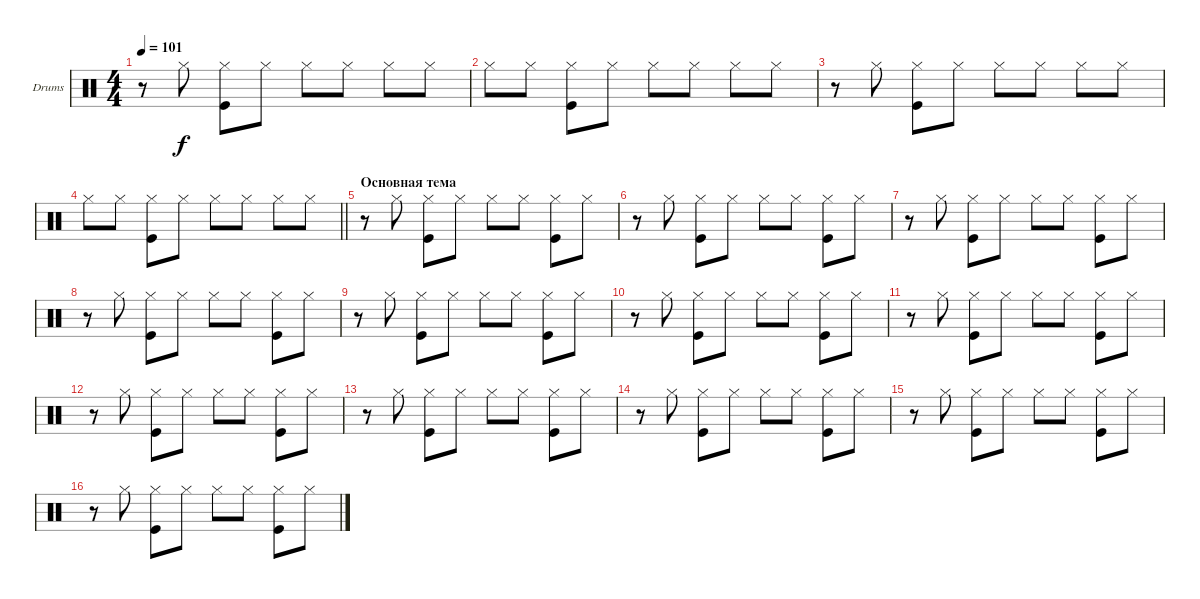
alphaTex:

\bracketExtendMode groupsimilarinstruments
\firstSystemTrackNameOrientation horizontal
\otherSystemsTrackNameOrientation horizontal
\track ("Drumkit" "Drums") {instrument percussion}
\staff {score}
\articulation defaults
\ts (4 4)
\tempo 101
\clef neutral
\ks c
r.8{dy f} "Hi-Hat (closed)".8 ("Hi-Hat (closed)" "Kick (hit)").8 "Hi-Hat (closed)".8 "Hi-Hat (closed)".8 "Hi-Hat (closed)".8 "Hi-Hat (closed)".8 "Hi-Hat (closed)".8 |
"Hi-Hat (closed)".8 "Hi-Hat (closed)".8 ("Hi-Hat (closed)" "Kick (hit)").8 "Hi-Hat (closed)".8 "Hi-Hat (closed)".8 "Hi-Hat (closed)".8 "Hi-Hat (closed)".8 "Hi-Hat (closed)".8 |
r.8 "Hi-Hat (closed)".8 ("Hi-Hat (closed)" "Kick (hit)").8 "Hi-Hat (closed)".8 "Hi-Hat (closed)".8 "Hi-Hat (closed)".8 "Hi-Hat (closed)".8 "Hi-Hat (closed)".8 |
\barLineRight lightlight "Hi-Hat (closed)".8 "Hi-Hat (closed)".8
("Hi-Hat (closed)" "Kick (hit)").8 "Hi-Hat (closed)".8 "Hi-Hat (closed)".8 "Hi-Hat (closed)".8 "Hi-Hat (closed)".8 "Hi-Hat (closed)".8 |
\section ("" "Основная тема")
r.8 "Hi-Hat (closed)".8 ("Hi-Hat (closed)" "Kick (hit)").8 "Hi-Hat (closed)".8 "Hi-Hat (closed)".8 "Hi-Hat (closed)".8 ("Hi-Hat (closed)" "Kick (hit)").8 "Hi-Hat (closed)".8 |
r.8 "Hi-Hat (closed)".8 ("Hi-Hat (closed)" "Kick (hit)").8 "Hi-Hat (closed)".8 "Hi-Hat (closed)".8 "Hi-Hat (closed)".8 ("Hi-Hat (closed)" "Kick (hit)").8 "Hi-Hat (closed)".8 |
r.8 "Hi-Hat (closed)".8 ("Hi-Hat (closed)" "Kick (hit)").8 "Hi-Hat (closed)".8 "Hi-Hat (closed)".8 "Hi-Hat (closed)".8 ("Hi-Hat (closed)" "Kick (hit)").8 "Hi-Hat (closed)".8 |
r.8 "Hi-Hat (closed)".8 ("Hi-Hat (closed)" "Kick (hit)").8 "Hi-Hat (closed)".8 "Hi-Hat (closed)".8 "Hi-Hat (closed)".8 ("Hi-Hat (closed)" "Kick (hit)").8 "Hi-Hat (closed)".8 |
r.8 "Hi-Hat (closed)".8 ("Hi-Hat (closed)" "Kick (hit)").8 "Hi-Hat (closed)".8 "Hi-Hat (closed)".8 "Hi-Hat (closed)".8 ("Hi-Hat (closed)" "Kick (hit)").8 "Hi-Hat (closed)".8 |
r.8 "Hi-Hat (closed)".8 ("Hi-Hat (closed)" "Kick (hit)").8 "Hi-Hat (closed)".8 "Hi-Hat (closed)".8 "Hi-Hat (closed)".8 ("Hi-Hat (closed)" "Kick (hit)").8 "Hi-Hat (closed)".8 |
r.8 "Hi-Hat (closed)".8 ("Hi-Hat (closed)" "Kick (hit)").8 "Hi-Hat (closed)".8 "Hi-Hat (closed)".8 "Hi-Hat (closed)".8 ("Hi-Hat (closed)" "Kick (hit)").8 "Hi-Hat (closed)".8 |
r.8 "Hi-Hat (closed)".8 ("Hi-Hat (closed)" "Kick (hit)").8 "Hi-Hat (closed)".8 "Hi-Hat (closed)".8 "Hi-Hat (closed)".8 ("Hi-Hat (closed)" "Kick (hit)").8 "Hi-Hat (closed)".8 |
r.8 "Hi-Hat (closed)".8 ("Hi-Hat (closed)" "Kick (hit)").8 "Hi-Hat (closed)".8 "Hi-Hat (closed)".8 "Hi-Hat (closed)".8 ("Hi-Hat (closed)" "Kick (hit)").8 "Hi-Hat (closed)".8 |
r.8 "Hi-Hat (closed)".8 ("Hi-Hat (closed)" "Kick (hit)").8 "Hi-Hat (closed)".8 "Hi-Hat (closed)".8 "Hi-Hat (closed)".8 ("Hi-Hat (closed)" "Kick (hit)").8 "Hi-Hat (closed)".8 |
r.8 "Hi-Hat (closed)".8 ("Hi-Hat (closed)" "Kick (hit)").8 "Hi-Hat (closed)".8 "Hi-Hat (closed)".8 "Hi-Hat (closed)".8 ("Hi-Hat (closed)" "Kick (hit)").8 "Hi-Hat (closed)".8 |
r.8 "Hi-Hat (closed)".8 ("Hi-Hat (closed)" "Kick (hit)").8 "Hi-Hat (closed)".8 "Hi-Hat (closed)".8 "Hi-Hat (closed)".8 ("Hi-Hat (closed)" "Kick (hit)").8 "Hi-Hat (closed)".8
